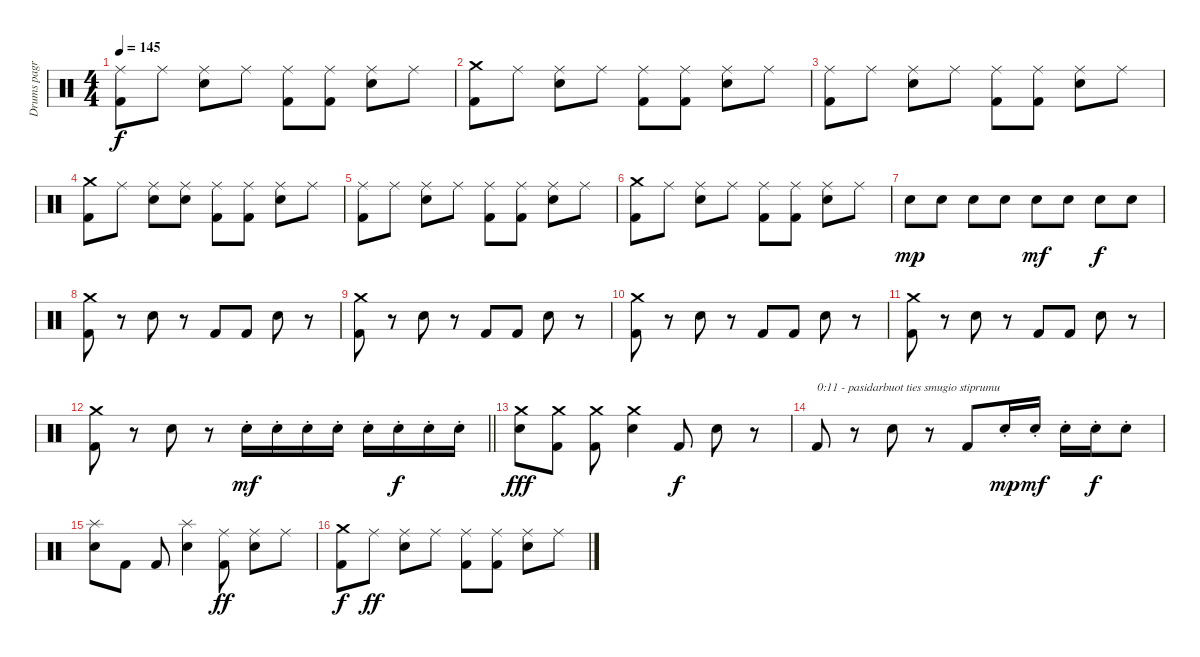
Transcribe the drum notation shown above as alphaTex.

\track ("Drums pagr" "Drums pagr") {instrument percussion}
\staff {score}
\articulation defaults
\ts (4 4)
\tempo 145
\clef neutral
\ks c
("Ride (middle)" "Kick (hit) 2").8{dy f} "Ride (middle)".8 ("Ride (middle)" "Snare (hit) 2").8 "Ride (middle)".8 ("Ride (middle)" "Kick (hit) 2").8 ("Ride (middle)" "Kick (hit) 2").8 ("Ride (middle)" "Snare (hit) 2").8 "Ride (middle)".8 |
("Crash medium (hit)" "Kick (hit) 2").8 "Ride (middle)".8 ("Ride (middle)" "Snare (hit) 2").8 "Ride (middle)".8 ("Ride (middle)" "Kick (hit) 2").8 ("Ride (middle)" "Kick (hit) 2").8 ("Ride (middle)" "Snare (hit) 2").8 "Ride (middle)".8 |
("Ride (middle)" "Kick (hit) 2").8 "Ride (middle)".8 ("Ride (middle)" "Snare (hit) 2").8 "Ride (middle)".8 ("Ride (middle)" "Kick (hit) 2").8 ("Ride (middle)" "Kick (hit) 2").8 ("Ride (middle)" "Snare (hit) 2").8 "Ride (middle)".8 |
("Crash medium (hit)" "Kick (hit) 2").8 "Ride (middle)".8 ("Ride (middle)" "Snare (hit) 2").8 ("Ride (middle)" "Snare (hit) 2").8 ("Ride (middle)" "Kick (hit) 2").8 ("Ride (middle)" "Kick (hit) 2").8 ("Ride (middle)" "Snare (hit) 2").8 "Ride (middle)".8 |
("Ride (middle)" "Kick (hit) 2").8 "Ride (middle)".8 ("Ride (middle)" "Snare (hit) 2").8 "Ride (middle)".8 ("Ride (middle)" "Kick (hit) 2").8 ("Ride (middle)" "Kick (hit) 2").8 ("Ride (middle)" "Snare (hit) 2").8 "Ride (middle)".8 |
("Crash medium (hit)" "Kick (hit) 2").8 "Ride (middle)".8 ("Ride (middle)" "Snare (hit) 2").8 "Ride (middle)".8 ("Ride (middle)" "Kick (hit) 2").8 ("Ride (middle)" "Kick (hit) 2").8 ("Ride (middle)" "Snare (hit) 2").8 "Ride (middle)".8 |
"Snare (hit) 2".8{dy mp} "Snare (hit) 2".8 "Snare (hit) 2".8 "Snare (hit) 2".8 "Snare (hit) 2".8{dy mf} "Snare (hit) 2".8 "Snare (hit) 2".8{dy f} "Snare (hit) 2".8 |
("Crash medium (hit)" "Kick (hit) 2").8 r.8 "Snare (hit) 2".8 r.8 "Kick (hit) 2".8 "Kick (hit) 2".8 "Snare (hit) 2".8 r.8 |
("Crash medium (hit)" "Kick (hit) 2").8 r.8 "Snare (hit) 2".8 r.8 "Kick (hit) 2".8 "Kick (hit) 2".8 "Snare (hit) 2".8 r.8 |
("Crash medium (hit)" "Kick (hit) 2").8 r.8 "Snare (hit) 2".8 r.8 "Kick (hit) 2".8 "Kick (hit) 2".8 "Snare (hit) 2".8 r.8 |
("Crash medium (hit)" "Kick (hit) 2").8 r.8 "Snare (hit) 2".8 r.8 "Kick (hit) 2".8 "Kick (hit) 2".8 "Snare (hit) 2".8 r.8 |
\barLineRight lightlight
("Crash medium (hit)" "Kick (hit) 2").8 r.8 "Snare (hit) 2".8 r.8 "Snare (hit) 2"{st}.16{dy mf} "Snare (hit) 2"{st}.16 "Snare (hit) 2"{st}.16 "Snare (hit) 2"{st}.16 "Snare (hit) 2"{st}.16 "Snare (hit) 2"{st}.16{dy f} "Snare (hit) 2"{st}.16 "Snare (hit) 2"{st}.16 |
\section ("" "")
("Crash medium (hit)" "Snare (hit) 2").8{dy fff} ("Crash medium (hit)" "Kick (hit) 2").8 ("Crash medium (hit)" "Kick (hit) 2").8 ("Crash medium (hit)" "Snare (hit) 2").4 "Kick (hit) 2".8{dy f} "Snare (hit) 2".8 r.8 |
"Kick (hit) 2".8{txt "0:11 - pasidarbuot ties smugio stiprumu"} r.8 "Snare (hit) 2".8 r.8 "Kick (hit) 2".8 "Snare (hit) 2"{st}.16{dy mp} "Snare (hit) 2"{st}.16{dy mf} "Snare (hit) 2"{st}.16 "Snare (hit) 2"{st}.16{dy f} "Snare (hit) 2"{st}.8 |
("Splash (hit)" "Snare (hit) 2").8 "Kick (hit) 2".8 "Kick (hit) 2".8 ("Splash (hit)" "Snare (hit) 2").4 ("Ride (middle)" "Kick (hit) 2").8{dy ff} ("Ride (middle)" "Snare (hit) 2").8 "Ride (middle)".8 |
("Crash medium (hit)" "Kick (hit) 2").8{dy f} "Ride (middle)".8{dy ff} ("Ride (middle)" "Snare (hit) 2").8 "Ride (middle)".8 ("Ride (middle)" "Kick (hit) 2").8 ("Ride (middle)" "Kick (hit) 2").8 ("Ride (middle)" "Snare (hit) 2").8 "Ride (middle)".8
